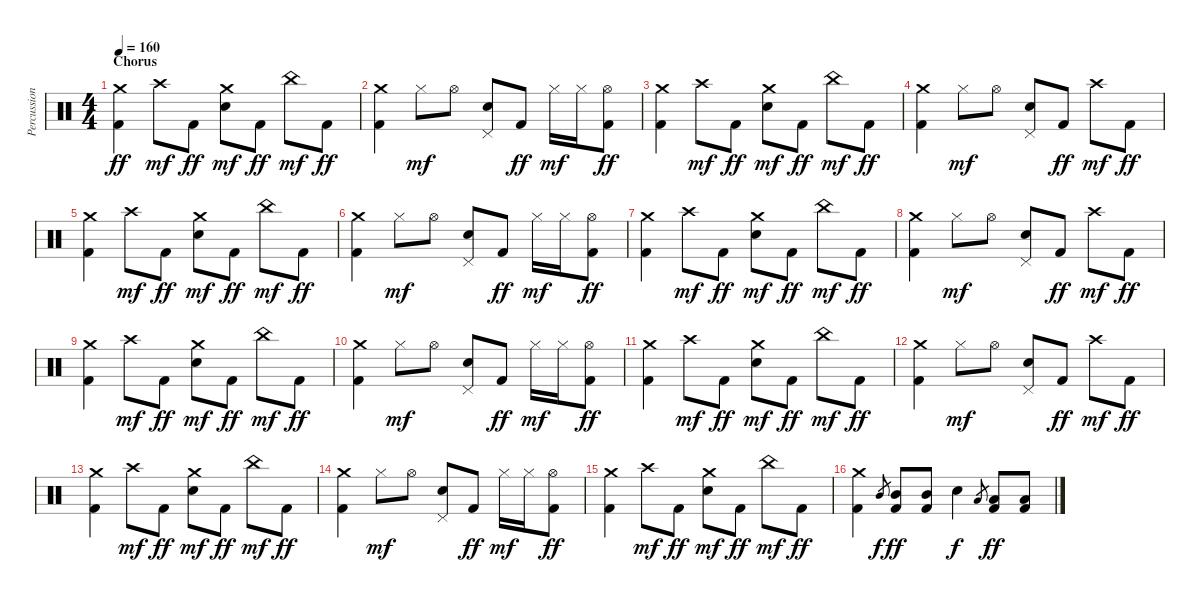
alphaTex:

\track ("Percussion" "Percussion") {instrument percussion}
\staff {score}
\articulation defaults
\ts (4 4)
\section ("" "Chorus")
\tempo 160
\clef neutral
\ks c
("Crash medium (hit)" "Kick (hit) 2").4{dy ff} "Crash high (hit)".8{dy mf} "Kick (hit) 2".8{dy ff} ("Crash medium (hit)" "Electric Snare (hit)").8{dy mf} "Kick (hit) 2".8{dy ff} "China (hit)".8{dy mf} "Kick (hit) 2".8{dy ff} |
("Crash medium (hit)" "Kick (hit) 2").4 "Hi-Hat (closed)".8{dy mf} "Hi-Hat (open)".8 ("Pedal Hi-Hat (hit)" "Electric Snare (hit)").8 "Kick (hit) 2".8{dy ff} "Hi-Hat (closed)".16{dy mf} "Hi-Hat (closed)".16 ("Hi-Hat (open)" "Kick (hit) 2").8{dy ff} |
("Crash medium (hit)" "Kick (hit) 2").4 "Crash high (hit)".8{dy mf} "Kick (hit) 2".8{dy ff} ("Crash medium (hit)" "Electric Snare (hit)").8{dy mf} "Kick (hit) 2".8{dy ff} "China (hit)".8{dy mf} "Kick (hit) 2".8{dy ff} |
("Crash medium (hit)" "Kick (hit) 2").4 "Hi-Hat (closed)".8{dy mf} "Hi-Hat (open)".8 ("Pedal Hi-Hat (hit)" "Electric Snare (hit)").8 "Kick (hit) 2".8{dy ff} "Crash high (hit)".8{dy mf} "Kick (hit) 2".8{dy ff} |
("Crash medium (hit)" "Kick (hit) 2").4 "Crash high (hit)".8{dy mf} "Kick (hit) 2".8{dy ff} ("Crash medium (hit)" "Electric Snare (hit)").8{dy mf} "Kick (hit) 2".8{dy ff} "China (hit)".8{dy mf} "Kick (hit) 2".8{dy ff} |
("Crash medium (hit)" "Kick (hit) 2").4 "Hi-Hat (closed)".8{dy mf} "Hi-Hat (open)".8 ("Pedal Hi-Hat (hit)" "Electric Snare (hit)").8 "Kick (hit) 2".8{dy ff} "Hi-Hat (closed)".16{dy mf} "Hi-Hat (closed)".16 ("Hi-Hat (open)" "Kick (hit) 2").8{dy ff} |
("Crash medium (hit)" "Kick (hit) 2").4 "Crash high (hit)".8{dy mf} "Kick (hit) 2".8{dy ff} ("Crash medium (hit)" "Electric Snare (hit)").8{dy mf} "Kick (hit) 2".8{dy ff} "China (hit)".8{dy mf} "Kick (hit) 2".8{dy ff} |
("Crash medium (hit)" "Kick (hit) 2").4 "Hi-Hat (closed)".8{dy mf} "Hi-Hat (open)".8 ("Pedal Hi-Hat (hit)" "Electric Snare (hit)").8 "Kick (hit) 2".8{dy ff} "Crash high (hit)".8{dy mf} "Kick (hit) 2".8{dy ff} |
("Crash medium (hit)" "Kick (hit) 2").4 "Crash high (hit)".8{dy mf} "Kick (hit) 2".8{dy ff} ("Crash medium (hit)" "Electric Snare (hit)").8{dy mf} "Kick (hit) 2".8{dy ff} "China (hit)".8{dy mf} "Kick (hit) 2".8{dy ff} |
("Crash medium (hit)" "Kick (hit) 2").4 "Hi-Hat (closed)".8{dy mf} "Hi-Hat (open)".8 ("Pedal Hi-Hat (hit)" "Electric Snare (hit)").8 "Kick (hit) 2".8{dy ff} "Hi-Hat (closed)".16{dy mf} "Hi-Hat (closed)".16 ("Hi-Hat (open)" "Kick (hit) 2").8{dy ff} |
("Crash medium (hit)" "Kick (hit) 2").4 "Crash high (hit)".8{dy mf} "Kick (hit) 2".8{dy ff} ("Crash medium (hit)" "Electric Snare (hit)").8{dy mf} "Kick (hit) 2".8{dy ff} "China (hit)".8{dy mf} "Kick (hit) 2".8{dy ff} |
("Crash medium (hit)" "Kick (hit) 2").4 "Hi-Hat (closed)".8{dy mf} "Hi-Hat (open)".8 ("Pedal Hi-Hat (hit)" "Electric Snare (hit)").8 "Kick (hit) 2".8{dy ff} "Crash high (hit)".8{dy mf} "Kick (hit) 2".8{dy ff} |
("Crash medium (hit)" "Kick (hit) 2").4 "Crash high (hit)".8{dy mf} "Kick (hit) 2".8{dy ff} ("Crash medium (hit)" "Electric Snare (hit)").8{dy mf} "Kick (hit) 2".8{dy ff} "China (hit)".8{dy mf} "Kick (hit) 2".8{dy ff} |
("Crash medium (hit)" "Kick (hit) 2").4 "Hi-Hat (closed)".8{dy mf} "Hi-Hat (open)".8 ("Pedal Hi-Hat (hit)" "Electric Snare (hit)").8 "Kick (hit) 2".8{dy ff} "Hi-Hat (closed)".16{dy mf} "Hi-Hat (closed)".16 ("Hi-Hat (open)" "Kick (hit) 2").8{dy ff} |
("Crash medium (hit)" "Kick (hit) 2").4 "Crash high (hit)".8{dy mf} "Kick (hit) 2".8{dy ff} ("Crash medium (hit)" "Electric Snare (hit)").8{dy mf} "Kick (hit) 2".8{dy ff} "China (hit)".8{dy mf} "Kick (hit) 2".8{dy ff} |
("Crash medium (hit)" "Kick (hit) 2").4 "Mid Tom (hit)".8{gr dy f} ("Mid Tom (hit)" "Kick (hit) 2").8{dy ff} ("Mid Tom (hit)" "Kick (hit) 2").8 "Electric Snare (hit)".4{dy f} "Low Tom (hit)".8{gr} ("Low Tom (hit)" "Kick (hit) 2").8{dy ff} ("Low Tom (hit)" "Kick (hit) 2").8
